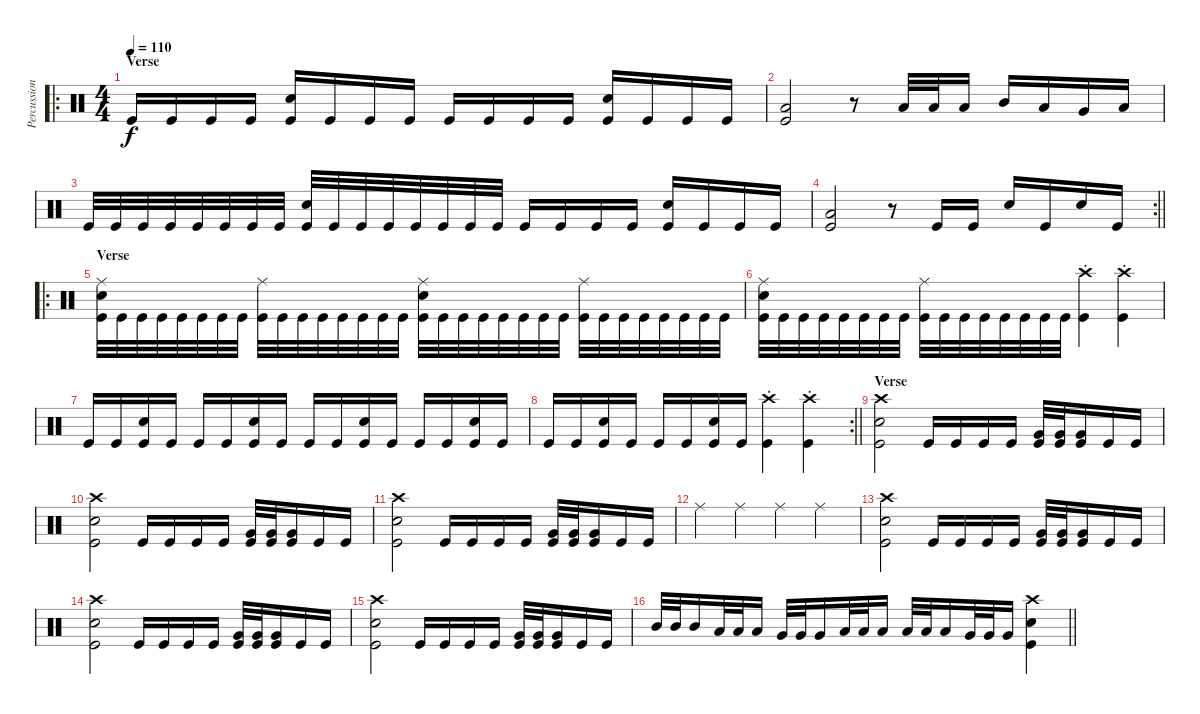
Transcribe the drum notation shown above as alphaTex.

\track ("Percussion" "Percussion") {instrument percussion}
\staff {score}
\articulation defaults
\ro
\ts (4 4)
\section ("" "Verse ")
\tempo 110
\clef neutral
\ks c "Kick (hit)".16{dy f} "Kick (hit)".16 "Kick (hit)".16 "Kick (hit)".16
("Electric Snare (hit)" "Kick (hit)").16 "Kick (hit)".16 "Kick (hit)".16 "Kick (hit)".16 "Kick (hit)".16 "Kick (hit)".16 "Kick (hit)".16 "Kick (hit)".16 ("Electric Snare (hit)" "Kick (hit)").16 "Kick (hit)".16 "Kick (hit)".16 "Kick (hit)".16 |
("Low Floor Tom (hit)" "Kick (hit)").2 r.8 "Low Tom (hit)".32 "Low Tom (hit)".32 "Low Tom (hit)".16 "Mid Tom (hit)".16 "Low Tom (hit)".16 "Very Low Tom (hit)".16 "Low Floor Tom (hit)".16 |
"Kick (hit)".32 "Kick (hit)".32 "Kick (hit)".32 "Kick (hit)".32 "Kick (hit)".32 "Kick (hit)".32 "Kick (hit)".32 "Kick (hit)".32 ("Electric Snare (hit)" "Kick (hit)").32 "Kick (hit)".32 "Kick (hit)".32 "Kick (hit)".32 "Kick (hit)".32 "Kick (hit)".32 "Kick (hit)".32 "Kick (hit)".32 "Kick (hit)".16 "Kick (hit)".16 "Kick (hit)".16 "Kick (hit)".16 ("Electric Snare (hit)" "Kick (hit)").16 "Kick (hit)".16 "Kick (hit)".16 "Kick (hit)".16 |
\rc 2
\barLineRight lightlight
("Low Floor Tom (hit)" "Kick (hit)").2 r.8 "Kick (hit)".16 "Kick (hit)".16 "Electric Snare (hit)".16 "Kick (hit)".16 "Electric Snare (hit)".16 "Kick (hit)".16 |
\ro
\section ("" "Verse ")
("Ride (middle)" "Electric Snare (hit)" "Kick (hit)").32 "Kick (hit)".32 "Kick (hit)".32 "Kick (hit)".32 "Kick (hit)".32 "Kick (hit)".32 "Kick (hit)".32 "Kick (hit)".32 ("Ride (middle)" "Kick (hit)").32 "Kick (hit)".32 "Kick (hit)".32 "Kick (hit)".32 "Kick (hit)".32 "Kick (hit)".32 "Kick (hit)".32 "Kick (hit)".32 ("Ride (middle)" "Electric Snare (hit)" "Kick (hit)").32 "Kick (hit)".32 "Kick (hit)".32 "Kick (hit)".32 "Kick (hit)".32 "Kick (hit)".32 "Kick (hit)".32 "Kick (hit)".32 ("Ride (middle)" "Kick (hit)").32 "Kick (hit)".32 "Kick (hit)".32 "Kick (hit)".32 "Kick (hit)".32 "Kick (hit)".32 "Kick (hit)".32 "Kick (hit)".32 |
("Ride (middle)" "Electric Snare (hit)" "Kick (hit)").32 "Kick (hit)".32 "Kick (hit)".32 "Kick (hit)".32 "Kick (hit)".32 "Kick (hit)".32 "Kick (hit)".32 "Kick (hit)".32 ("Ride (middle)" "Kick (hit)").32 "Kick (hit)".32 "Kick (hit)".32 "Kick (hit)".32 "Kick (hit)".32 "Kick (hit)".32 "Kick (hit)".32 "Kick (hit)".32 ("Crash high (hit)" "Kick (hit)"{st}).4 ("Crash high (hit)" "Kick (hit)"{st}).4 |
"Kick (hit)".16 "Kick (hit)".16 ("Electric Snare (hit)" "Kick (hit)").16 "Kick (hit)".16 "Kick (hit)".16 "Kick (hit)".16 ("Electric Snare (hit)" "Kick (hit)").16 "Kick (hit)".16 "Kick (hit)".16 "Kick (hit)".16 ("Electric Snare (hit)" "Kick (hit)").16 "Kick (hit)".16 "Kick (hit)".16 "Kick (hit)".16 ("Electric Snare (hit)" "Kick (hit)").16 "Kick (hit)".16 |
\rc 2
\barLineRight lightlight "Kick (hit)".16 "Kick (hit)".16
("Electric Snare (hit)" "Kick (hit)").16 "Kick (hit)".16 "Kick (hit)".16 "Kick (hit)".16 ("Electric Snare (hit)" "Kick (hit)").16 "Kick (hit)".16 ("Crash high (hit)" "Kick (hit)"{st}).4 ("Crash high (hit)" "Kick (hit)"{st}).4 |
\section ("" "Verse")
("Crash high (hit)" "Electric Snare (hit)" "Kick (hit)").2 "Kick (hit)".16 "Kick (hit)".16 "Kick (hit)".16 "Kick (hit)".16 ("Very Low Tom (hit)" "Kick (hit)").32 ("Very Low Tom (hit)" "Kick (hit)").32 ("Very Low Tom (hit)" "Kick (hit)").16 "Kick (hit)".16 "Kick (hit)".16 |
("Crash high (hit)" "Electric Snare (hit)" "Kick (hit)").2 "Kick (hit)".16 "Kick (hit)".16 "Kick (hit)".16 "Kick (hit)".16 ("Very Low Tom (hit)" "Kick (hit)").32 ("Very Low Tom (hit)" "Kick (hit)").32 ("Very Low Tom (hit)" "Kick (hit)").16 "Kick (hit)".16 "Kick (hit)".16 |
("Crash high (hit)" "Electric Snare (hit)" "Kick (hit)").2 "Kick (hit)".16 "Kick (hit)".16 "Kick (hit)".16 "Kick (hit)".16 ("Very Low Tom (hit)" "Kick (hit)").32 ("Very Low Tom (hit)" "Kick (hit)").32 ("Very Low Tom (hit)" "Kick (hit)").16 "Kick (hit)".16 "Kick (hit)".16 |
"Ride (middle)".4 "Ride (middle)".4 "Ride (middle)".4 "Ride (middle)".4 |
("Crash high (hit)" "Electric Snare (hit)" "Kick (hit)").2 "Kick (hit)".16 "Kick (hit)".16 "Kick (hit)".16 "Kick (hit)".16 ("Very Low Tom (hit)" "Kick (hit)").32 ("Very Low Tom (hit)" "Kick (hit)").32 ("Very Low Tom (hit)" "Kick (hit)").16 "Kick (hit)".16 "Kick (hit)".16 |
("Crash high (hit)" "Electric Snare (hit)" "Kick (hit)").2 "Kick (hit)".16 "Kick (hit)".16 "Kick (hit)".16 "Kick (hit)".16 ("Very Low Tom (hit)" "Kick (hit)").32 ("Very Low Tom (hit)" "Kick (hit)").32 ("Very Low Tom (hit)" "Kick (hit)").16 "Kick (hit)".16 "Kick (hit)".16 |
("Crash high (hit)" "Electric Snare (hit)" "Kick (hit)").2 "Kick (hit)".16 "Kick (hit)".16 "Kick (hit)".16 "Kick (hit)".16 ("Very Low Tom (hit)" "Kick (hit)").32 ("Very Low Tom (hit)" "Kick (hit)").32 ("Very Low Tom (hit)" "Kick (hit)").16 "Kick (hit)".16 "Kick (hit)".16 |
\barLineRight lightlight "Mid Tom (hit)".32 "Mid Tom (hit)".32 "Mid Tom (hit)".16 "Low Tom (hit)".32 "Low Tom (hit)".32 "Low Tom (hit)".16 "Very Low Tom (hit)".32 "Very Low Tom (hit)".32 "Very Low Tom (hit)".16 "Low Floor Tom (hit)".32 "Low Floor Tom (hit)".32 "Low Floor Tom (hit)".16 "Low Tom (hit)".32 "Low Tom (hit)".32 "Low Tom (hit)".16 "Very Low Tom (hit)".32 "Very Low Tom (hit)".32 "Very Low Tom (hit)".16
("Crash high (hit)" "Electric Snare (hit)" "Kick (hit)").4
